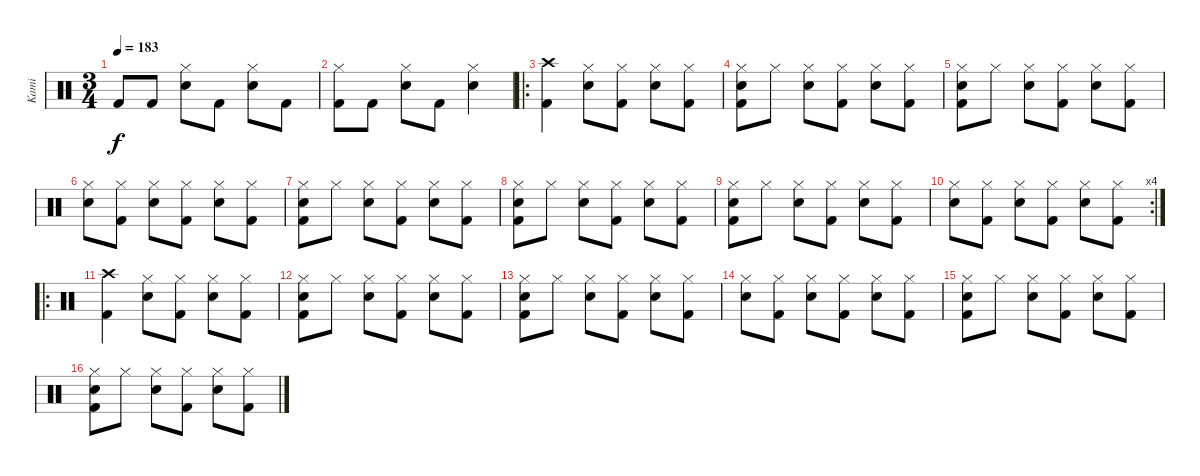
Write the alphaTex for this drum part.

\track ("Kami" "Kami") {instrument percussion}
\staff {score}
\articulation defaults
\ts (3 4)
\tempo 183
\clef neutral
\ks c "Kick (hit) 2".8{dy f} "Kick (hit) 2".8
("Hi-Hat (closed)" "Electric Snare (hit)").8 "Kick (hit) 2".8 ("Hi-Hat (closed)" "Electric Snare (hit)").8 "Kick (hit) 2".8 |
("Hi-Hat (closed)" "Kick (hit) 2").8 "Kick (hit) 2".8 ("Hi-Hat (closed)" "Electric Snare (hit)").8 "Kick (hit) 2".8 ("Hi-Hat (closed)" "Electric Snare (hit)").4 |
\ro
("Crash high (hit)" "Kick (hit) 2").4 ("Hi-Hat (closed)" "Electric Snare (hit)").8 ("Hi-Hat (closed)" "Kick (hit) 2").8 ("Hi-Hat (closed)" "Electric Snare (hit)").8 ("Hi-Hat (closed)" "Kick (hit) 2").8 |
("Hi-Hat (closed)" "Electric Snare (hit)" "Kick (hit) 2").8 "Hi-Hat (closed)".8 ("Hi-Hat (closed)" "Electric Snare (hit)").8 ("Hi-Hat (closed)" "Kick (hit) 2").8 ("Hi-Hat (closed)" "Electric Snare (hit)").8 ("Hi-Hat (closed)" "Kick (hit) 2").8 |
("Hi-Hat (closed)" "Electric Snare (hit)" "Kick (hit) 2").8 "Hi-Hat (closed)".8 ("Hi-Hat (closed)" "Electric Snare (hit)").8 ("Hi-Hat (closed)" "Kick (hit) 2").8 ("Hi-Hat (closed)" "Electric Snare (hit)").8 ("Hi-Hat (closed)" "Kick (hit) 2").8 |
("Hi-Hat (closed)" "Electric Snare (hit)").8 ("Hi-Hat (closed)" "Kick (hit) 2").8 ("Hi-Hat (closed)" "Electric Snare (hit)").8 ("Hi-Hat (closed)" "Kick (hit) 2").8 ("Hi-Hat (closed)" "Electric Snare (hit)").8 ("Hi-Hat (closed)" "Kick (hit) 2").8 |
("Hi-Hat (closed)" "Electric Snare (hit)" "Kick (hit) 2").8 "Hi-Hat (closed)".8 ("Hi-Hat (closed)" "Electric Snare (hit)").8 ("Hi-Hat (closed)" "Kick (hit) 2").8 ("Hi-Hat (closed)" "Electric Snare (hit)").8 ("Hi-Hat (closed)" "Kick (hit) 2").8 |
("Hi-Hat (closed)" "Electric Snare (hit)" "Kick (hit) 2").8 "Hi-Hat (closed)".8 ("Hi-Hat (closed)" "Electric Snare (hit)").8 ("Hi-Hat (closed)" "Kick (hit) 2").8 ("Hi-Hat (closed)" "Electric Snare (hit)").8 ("Hi-Hat (closed)" "Kick (hit) 2").8 |
("Hi-Hat (closed)" "Electric Snare (hit)" "Kick (hit) 2").8 "Hi-Hat (closed)".8 ("Hi-Hat (closed)" "Electric Snare (hit)").8 ("Hi-Hat (closed)" "Kick (hit) 2").8 ("Hi-Hat (closed)" "Electric Snare (hit)").8 ("Hi-Hat (closed)" "Kick (hit) 2").8 |
\rc 4
("Hi-Hat (closed)" "Electric Snare (hit)").8 ("Hi-Hat (closed)" "Kick (hit) 2").8 ("Hi-Hat (closed)" "Electric Snare (hit)").8 ("Hi-Hat (closed)" "Kick (hit) 2").8 ("Hi-Hat (closed)" "Electric Snare (hit)").8 ("Hi-Hat (closed)" "Kick (hit) 2").8 |
\ro
("Crash high (hit)" "Kick (hit) 2").4 ("Hi-Hat (closed)" "Electric Snare (hit)").8 ("Hi-Hat (closed)" "Kick (hit) 2").8 ("Hi-Hat (closed)" "Electric Snare (hit)").8 ("Hi-Hat (closed)" "Kick (hit) 2").8 |
("Hi-Hat (closed)" "Electric Snare (hit)" "Kick (hit) 2").8 "Hi-Hat (closed)".8 ("Hi-Hat (closed)" "Electric Snare (hit)").8 ("Hi-Hat (closed)" "Kick (hit) 2").8 ("Hi-Hat (closed)" "Electric Snare (hit)").8 ("Hi-Hat (closed)" "Kick (hit) 2").8 |
("Hi-Hat (closed)" "Electric Snare (hit)" "Kick (hit) 2").8 "Hi-Hat (closed)".8 ("Hi-Hat (closed)" "Electric Snare (hit)").8 ("Hi-Hat (closed)" "Kick (hit) 2").8 ("Hi-Hat (closed)" "Electric Snare (hit)").8 ("Hi-Hat (closed)" "Kick (hit) 2").8 |
("Hi-Hat (closed)" "Electric Snare (hit)").8 ("Hi-Hat (closed)" "Kick (hit) 2").8 ("Hi-Hat (closed)" "Electric Snare (hit)").8 ("Hi-Hat (closed)" "Kick (hit) 2").8 ("Hi-Hat (closed)" "Electric Snare (hit)").8 ("Hi-Hat (closed)" "Kick (hit) 2").8 |
("Hi-Hat (closed)" "Electric Snare (hit)" "Kick (hit) 2").8 "Hi-Hat (closed)".8 ("Hi-Hat (closed)" "Electric Snare (hit)").8 ("Hi-Hat (closed)" "Kick (hit) 2").8 ("Hi-Hat (closed)" "Electric Snare (hit)").8 ("Hi-Hat (closed)" "Kick (hit) 2").8 |
("Hi-Hat (closed)" "Electric Snare (hit)" "Kick (hit) 2").8 "Hi-Hat (closed)".8 ("Hi-Hat (closed)" "Electric Snare (hit)").8 ("Hi-Hat (closed)" "Kick (hit) 2").8 ("Hi-Hat (closed)" "Electric Snare (hit)").8 ("Hi-Hat (closed)" "Kick (hit) 2").8
